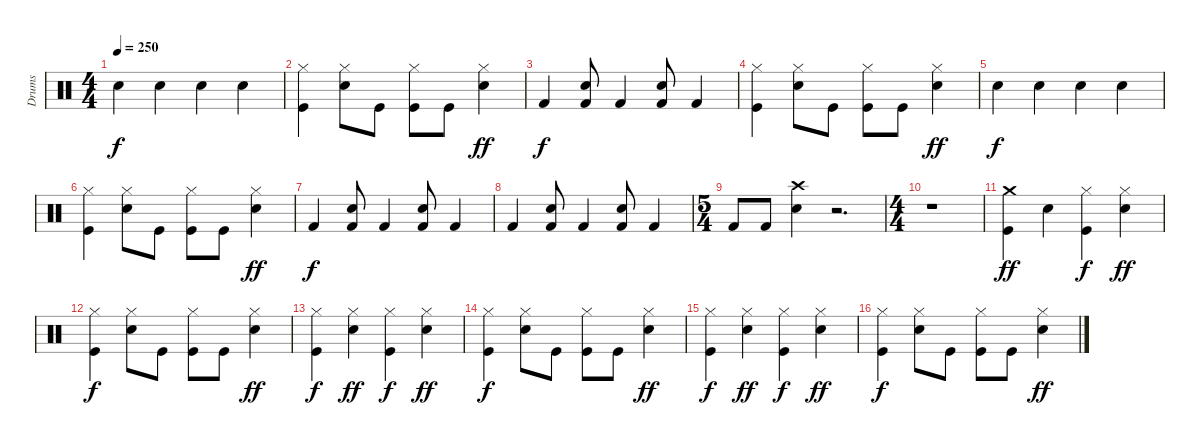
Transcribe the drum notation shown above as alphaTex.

\track ("Drums" "Drums") {instrument percussion}
\staff {score}
\articulation defaults
\ts (4 4)
\tempo 250
\clef neutral
\ks c "Electric Snare (hit)".4{dy f} "Electric Snare (hit)".4 "Electric Snare (hit)".4 "Electric Snare (hit)".4
|
("Hi-Hat (closed)" "Kick (hit)").4 ("Hi-Hat (closed)" "Snare (hit) 2").8 "Kick (hit)".8 ("Hi-Hat (closed)" "Kick (hit)").8 "Kick (hit)".8 ("Hi-Hat (closed)" "Snare (hit) 2").4{dy ff} |
"Kick (hit) 2".4{dy f} ("Kick (hit) 2" "Electric Snare (hit)").8 "Kick (hit) 2".4 ("Kick (hit) 2" "Electric Snare (hit)").8 "Kick (hit) 2".4 |
("Hi-Hat (closed)" "Kick (hit)").4 ("Hi-Hat (closed)" "Snare (hit) 2").8 "Kick (hit)".8 ("Hi-Hat (closed)" "Kick (hit)").8 "Kick (hit)".8 ("Hi-Hat (closed)" "Snare (hit) 2").4{dy ff} |
"Electric Snare (hit)".4{dy f} "Electric Snare (hit)".4 "Electric Snare (hit)".4 "Electric Snare (hit)".4 |
("Hi-Hat (closed)" "Kick (hit)").4 ("Hi-Hat (closed)" "Snare (hit) 2").8 "Kick (hit)".8 ("Hi-Hat (closed)" "Kick (hit)").8 "Kick (hit)".8 ("Hi-Hat (closed)" "Snare (hit) 2").4{dy ff} |
"Kick (hit) 2".4{dy f} ("Kick (hit) 2" "Electric Snare (hit)").8 "Kick (hit) 2".4 ("Kick (hit) 2" "Electric Snare (hit)").8 "Kick (hit) 2".4 |
"Kick (hit) 2".4 ("Kick (hit) 2" "Electric Snare (hit)").8 "Kick (hit) 2".4 ("Kick (hit) 2" "Electric Snare (hit)").8 "Kick (hit) 2".4 |
\ts (5 4)
"Kick (hit) 2".8 "Kick (hit) 2".8 ("Crash high (hit)" "Electric Snare (hit)").4 r.2{d} |
\ts (4 4)
r.1 |
("Crash medium (hit)" "Kick (hit)").4{dy ff} "Snare (hit) 2".4 ("Hi-Hat (closed)" "Kick (hit)").4{dy f} ("Hi-Hat (closed)" "Snare (hit) 2").4{dy ff} |
("Hi-Hat (closed)" "Kick (hit)").4{dy f} ("Hi-Hat (closed)" "Snare (hit) 2").8 "Kick (hit)".8 ("Hi-Hat (closed)" "Kick (hit)").8 "Kick (hit)".8 ("Hi-Hat (closed)" "Snare (hit) 2").4{dy ff} |
("Hi-Hat (closed)" "Kick (hit)").4{dy f} ("Hi-Hat (closed)" "Snare (hit) 2").4{dy ff} ("Hi-Hat (closed)" "Kick (hit)").4{dy f} ("Hi-Hat (closed)" "Snare (hit) 2").4{dy ff} |
("Hi-Hat (closed)" "Kick (hit)").4{dy f} ("Hi-Hat (closed)" "Snare (hit) 2").8 "Kick (hit)".8 ("Hi-Hat (closed)" "Kick (hit)").8 "Kick (hit)".8 ("Hi-Hat (closed)" "Snare (hit) 2").4{dy ff} |
("Hi-Hat (closed)" "Kick (hit)").4{dy f} ("Hi-Hat (closed)" "Snare (hit) 2").4{dy ff} ("Hi-Hat (closed)" "Kick (hit)").4{dy f} ("Hi-Hat (closed)" "Snare (hit) 2").4{dy ff} |
("Hi-Hat (closed)" "Kick (hit)").4{dy f} ("Hi-Hat (closed)" "Snare (hit) 2").8 "Kick (hit)".8 ("Hi-Hat (closed)" "Kick (hit)").8 "Kick (hit)".8 ("Hi-Hat (closed)" "Snare (hit) 2").4{dy ff}
